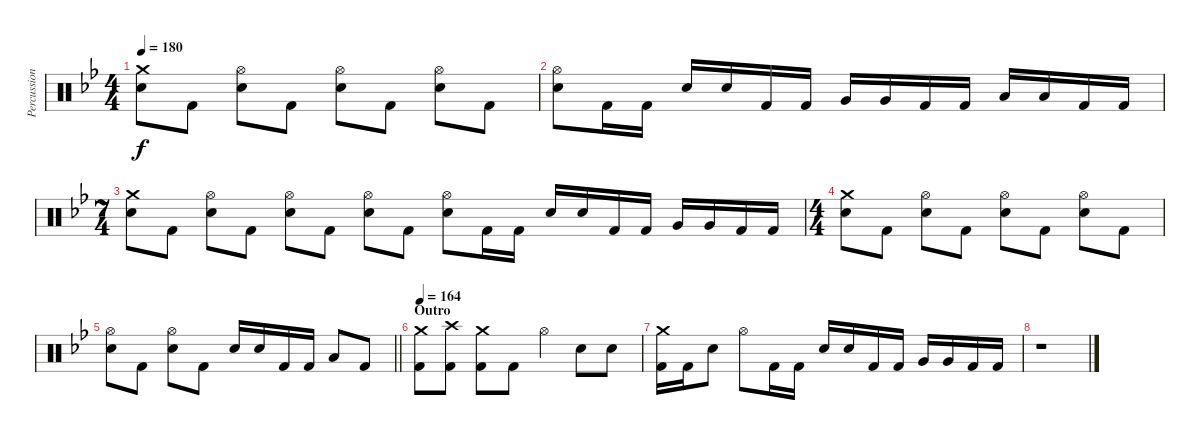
\track ("Percussion" "Percussion") {instrument percussion}
\staff {score}
\articulation defaults
\ts (4 4)
\tempo 180
\clef neutral
\ks bb
("Crash medium (hit)" "Electric Snare (hit)").8{dy f} "Kick (hit) 2".8 ("Hi-Hat (open)" "Electric Snare (hit)").8 "Kick (hit) 2".8 ("Hi-Hat (open)" "Electric Snare (hit)").8 "Kick (hit) 2".8 ("Hi-Hat (open)" "Electric Snare (hit)").8 "Kick (hit) 2".8 |
("Hi-Hat (open)" "Electric Snare (hit)").8 "Kick (hit) 2".16 "Kick (hit) 2".16 "Electric Snare (hit)".16 "Electric Snare (hit)".16 "Kick (hit) 2".16 "Kick (hit) 2".16 "Very Low Tom (hit)".16 "Very Low Tom (hit)".16 "Kick (hit) 2".16 "Kick (hit) 2".16 "Low Floor Tom (hit)".16 "Low Floor Tom (hit)".16 "Kick (hit) 2".16 "Kick (hit) 2".16 |
\ts (7 4)
("Crash medium (hit)" "Electric Snare (hit)").8 "Kick (hit) 2".8 ("Hi-Hat (open)" "Electric Snare (hit)").8 "Kick (hit) 2".8 ("Hi-Hat (open)" "Electric Snare (hit)").8 "Kick (hit) 2".8 ("Hi-Hat (open)" "Electric Snare (hit)").8 "Kick (hit) 2".8 ("Hi-Hat (open)" "Electric Snare (hit)").8 "Kick (hit) 2".16 "Kick (hit) 2".16 "Electric Snare (hit)".16 "Electric Snare (hit)".16 "Kick (hit) 2".16 "Kick (hit) 2".16 "Very Low Tom (hit)".16 "Very Low Tom (hit)".16 "Kick (hit) 2".16 "Kick (hit) 2".16 |
\ts (4 4)
("Crash medium (hit)" "Electric Snare (hit)").8 "Kick (hit) 2".8 ("Hi-Hat (open)" "Electric Snare (hit)").8 "Kick (hit) 2".8 ("Hi-Hat (open)" "Electric Snare (hit)").8 "Kick (hit) 2".8 ("Hi-Hat (open)" "Electric Snare (hit)").8 "Kick (hit) 2".8 |
\barLineRight lightlight
("Hi-Hat (open)" "Electric Snare (hit)").8 "Kick (hit) 2".8 ("Hi-Hat (open)" "Electric Snare (hit)").8 "Kick (hit) 2".8 "Electric Snare (hit)".16 "Electric Snare (hit)".16 "Kick (hit) 2".16 "Kick (hit) 2".16 "Low Floor Tom (hit)".8 "Kick (hit) 2".8 |
\section ("" "Outro")
\tempo 164
("Crash medium (hit)" "Kick (hit) 2").8 ("Crash high (hit)" "Kick (hit) 2").8 ("Crash medium (hit)" "Kick (hit) 2").8 "Kick (hit) 2".8 "Hi-Hat (open)".4 "Electric Snare (hit)".8 "Electric Snare (hit)".8 |
("Crash medium (hit)" "Kick (hit) 2").16 "Kick (hit) 2".16 "Electric Snare (hit)".8 "Hi-Hat (open)".8 "Kick (hit) 2".16 "Kick (hit) 2".16 "Electric Snare (hit)".16 "Electric Snare (hit)".16 "Kick (hit) 2".16 "Kick (hit) 2".16 "Very Low Tom (hit)".16 "Very Low Tom (hit)".16 "Kick (hit) 2".16 "Kick (hit) 2".16 |
r.1
